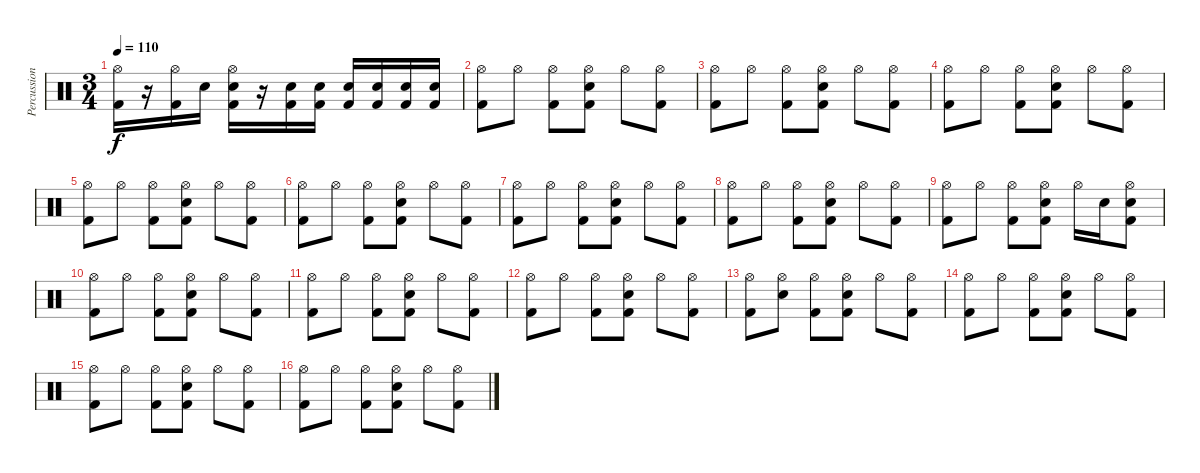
\track ("Percussion" "Percussion") {instrument percussion}
\staff {score}
\articulation defaults
\ts (3 4)
\tempo 110
\clef neutral
\ks c
("Hi-Hat (open)" "Kick (hit) 2").16{dy f} r.16 ("Hi-Hat (open)" "Kick (hit) 2").16 "Electric Snare (hit)".16 ("Hi-Hat (open)" "Electric Snare (hit)" "Kick (hit) 2").16 r.16 ("Electric Snare (hit)" "Kick (hit) 2").16 ("Electric Snare (hit)" "Kick (hit) 2").16 ("Electric Snare (hit)" "Kick (hit) 2").16 ("Electric Snare (hit)" "Kick (hit) 2").16 ("Electric Snare (hit)" "Kick (hit) 2").16 ("Electric Snare (hit)" "Kick (hit) 2").16 |
("Hi-Hat (open)" "Kick (hit) 2").8 "Hi-Hat (open)".8 ("Hi-Hat (open)" "Kick (hit) 2").8 ("Hi-Hat (open)" "Electric Snare (hit)" "Kick (hit) 2").8 "Hi-Hat (open)".8 ("Hi-Hat (open)" "Kick (hit) 2").8 |
("Hi-Hat (open)" "Kick (hit) 2").8 "Hi-Hat (open)".8 ("Hi-Hat (open)" "Kick (hit) 2").8 ("Hi-Hat (open)" "Electric Snare (hit)" "Kick (hit) 2").8 "Hi-Hat (open)".8 ("Hi-Hat (open)" "Kick (hit) 2").8 |
("Hi-Hat (open)" "Kick (hit) 2").8 "Hi-Hat (open)".8 ("Hi-Hat (open)" "Kick (hit) 2").8 ("Hi-Hat (open)" "Electric Snare (hit)" "Kick (hit) 2").8 "Hi-Hat (open)".8 ("Hi-Hat (open)" "Kick (hit) 2").8 |
("Hi-Hat (open)" "Kick (hit) 2").8 "Hi-Hat (open)".8 ("Hi-Hat (open)" "Kick (hit) 2").8 ("Hi-Hat (open)" "Electric Snare (hit)" "Kick (hit) 2").8 "Hi-Hat (open)".8 ("Hi-Hat (open)" "Kick (hit) 2").8 |
("Hi-Hat (open)" "Kick (hit) 2").8 "Hi-Hat (open)".8 ("Hi-Hat (open)" "Kick (hit) 2").8 ("Hi-Hat (open)" "Electric Snare (hit)" "Kick (hit) 2").8 "Hi-Hat (open)".8 ("Hi-Hat (open)" "Kick (hit) 2").8 |
("Hi-Hat (open)" "Kick (hit) 2").8 "Hi-Hat (open)".8 ("Hi-Hat (open)" "Kick (hit) 2").8 ("Hi-Hat (open)" "Electric Snare (hit)" "Kick (hit) 2").8 "Hi-Hat (open)".8 ("Hi-Hat (open)" "Kick (hit) 2").8 |
("Hi-Hat (open)" "Kick (hit) 2").8 "Hi-Hat (open)".8 ("Hi-Hat (open)" "Kick (hit) 2").8 ("Hi-Hat (open)" "Electric Snare (hit)" "Kick (hit) 2").8 "Hi-Hat (open)".8 ("Hi-Hat (open)" "Kick (hit) 2").8 |
("Hi-Hat (open)" "Kick (hit) 2").8 "Hi-Hat (open)".8 ("Hi-Hat (open)" "Kick (hit) 2").8 ("Hi-Hat (open)" "Electric Snare (hit)" "Kick (hit) 2").8 "Hi-Hat (open)".16 "Electric Snare (hit)".16 ("Hi-Hat (open)" "Electric Snare (hit)" "Kick (hit) 2").8 |
("Hi-Hat (open)" "Kick (hit) 2").8 "Hi-Hat (open)".8 ("Hi-Hat (open)" "Kick (hit) 2").8 ("Hi-Hat (open)" "Electric Snare (hit)" "Kick (hit) 2").8 "Hi-Hat (open)".8 ("Hi-Hat (open)" "Kick (hit) 2").8 |
("Hi-Hat (open)" "Kick (hit) 2").8 "Hi-Hat (open)".8 ("Hi-Hat (open)" "Kick (hit) 2").8 ("Hi-Hat (open)" "Electric Snare (hit)" "Kick (hit) 2").8 "Hi-Hat (open)".8 ("Hi-Hat (open)" "Kick (hit) 2").8 |
("Hi-Hat (open)" "Kick (hit) 2").8 "Hi-Hat (open)".8 ("Hi-Hat (open)" "Kick (hit) 2").8 ("Hi-Hat (open)" "Electric Snare (hit)" "Kick (hit) 2").8 "Hi-Hat (open)".8 ("Hi-Hat (open)" "Kick (hit) 2").8 |
("Hi-Hat (open)" "Kick (hit) 2").8 ("Hi-Hat (open)" "Electric Snare (hit)").8 ("Hi-Hat (open)" "Kick (hit) 2").8 ("Hi-Hat (open)" "Electric Snare (hit)" "Kick (hit) 2").8 "Hi-Hat (open)".8 ("Hi-Hat (open)" "Kick (hit) 2").8 |
("Hi-Hat (open)" "Kick (hit) 2").8 "Hi-Hat (open)".8 ("Hi-Hat (open)" "Kick (hit) 2").8 ("Hi-Hat (open)" "Electric Snare (hit)" "Kick (hit) 2").8 "Hi-Hat (open)".8 ("Hi-Hat (open)" "Kick (hit) 2").8 |
("Hi-Hat (open)" "Kick (hit) 2").8 "Hi-Hat (open)".8 ("Hi-Hat (open)" "Kick (hit) 2").8 ("Hi-Hat (open)" "Electric Snare (hit)" "Kick (hit) 2").8 "Hi-Hat (open)".8 ("Hi-Hat (open)" "Kick (hit) 2").8 |
("Hi-Hat (open)" "Kick (hit) 2").8 "Hi-Hat (open)".8 ("Hi-Hat (open)" "Kick (hit) 2").8 ("Hi-Hat (open)" "Electric Snare (hit)" "Kick (hit) 2").8 "Hi-Hat (open)".8 ("Hi-Hat (open)" "Kick (hit) 2").8
